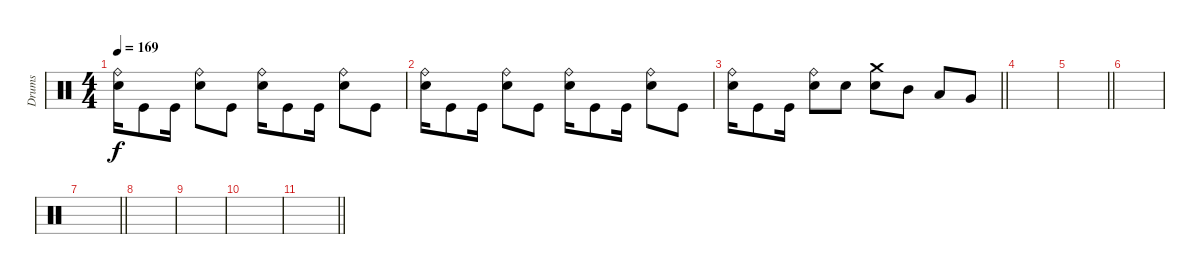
\track ("Drums" "Drums") {instrument percussion}
\staff
\articulation defaults
\ts (4 4)
\tempo 169
\clef neutral
\ks c
("Ride (bell)" "Electric Snare (hit)").16{dy f} "Kick (hit)".8 "Kick (hit)".16 ("Ride (bell)" "Electric Snare (hit)").8 "Kick (hit)".8 ("Ride (bell)" "Electric Snare (hit)").16 "Kick (hit)".8 "Kick (hit)".16 ("Ride (bell)" "Electric Snare (hit)").8 "Kick (hit)".8 |
("Ride (bell)" "Electric Snare (hit)").16 "Kick (hit)".8 "Kick (hit)".16 ("Ride (bell)" "Electric Snare (hit)").8 "Kick (hit)".8 ("Ride (bell)" "Electric Snare (hit)").16 "Kick (hit)".8 "Kick (hit)".16 ("Ride (bell)" "Electric Snare (hit)").8 "Kick (hit)".8 |
\barLineRight lightlight
("Ride (bell)" "Electric Snare (hit)").16 "Kick (hit)".8 "Kick (hit)".16 ("Ride (bell)" "Electric Snare (hit)").8 "Electric Snare (hit)".8 ("Crash medium (hit)" "Electric Snare (hit)").8 "Mid Tom (hit)".8 "Low Tom (hit)".8 "Very Low Tom (hit)".8 |
\section ("" "")
|
\barLineRight lightlight
|
|
\barLineRight lightlight
|
|
|
|
\barLineRight lightlight
